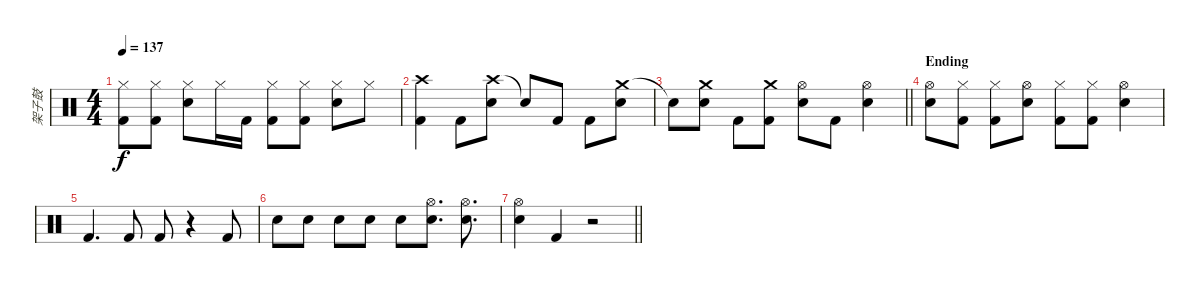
\track ("架子鼓" "架子鼓") {instrument percussion}
\staff {score}
\articulation defaults
\ts (4 4)
\tempo 137
\clef neutral
\ks c
("Hi-Hat (closed)" "Kick (hit) 2").8{dy f} ("Hi-Hat (closed)" "Kick (hit) 2").8 ("Hi-Hat (closed)" "Snare (hit) 2").8 "Hi-Hat (closed)".16 "Kick (hit) 2".16 ("Hi-Hat (closed)" "Kick (hit) 2").8 ("Hi-Hat (closed)" "Kick (hit) 2").8 ("Hi-Hat (closed)" "Snare (hit) 2").8 "Hi-Hat (closed)".8 |
("Crash high (hit)" "Kick (hit) 2").4 "Kick (hit) 2".8 ("Crash high (hit)" "Snare (hit) 2").8 "Snare (hit)"{t}.8 "Kick (hit) 2".8 "Kick (hit) 2".8 ("Crash medium (hit)" "Snare (hit) 2").8 |
\barLineRight lightlight "Snare (hit)"{t}.8
("Crash medium (hit)" "Snare (hit) 2").8 "Kick (hit) 2".8 ("Crash medium (hit)" "Kick (hit) 2").8 ("Hi-Hat (open)" "Snare (hit) 2").8 "Kick (hit) 2".8 ("Hi-Hat (open)" "Snare (hit) 2").4 |
\section ("" "Ending")
("Hi-Hat (open)" "Snare (hit) 2").8 ("Hi-Hat (closed)" "Kick (hit) 2").8 ("Hi-Hat (closed)" "Kick (hit) 2").8 ("Hi-Hat (open)" "Snare (hit) 2").8 ("Hi-Hat (closed)" "Kick (hit) 2").8 ("Hi-Hat (closed)" "Kick (hit) 2").8 ("Hi-Hat (open)" "Snare (hit) 2").4 |
"Kick (hit) 2".4{d} "Kick (hit) 2".8 "Kick (hit) 2".8 r.4 "Kick (hit) 2".8 |
"Snare (hit) 2".8 "Snare (hit) 2".8 "Snare (hit) 2".8 "Snare (hit) 2".8 "Snare (hit) 2".8 ("Hi-Hat (open)" "Snare (hit) 2").8{d} ("Hi-Hat (open)" "Snare (hit) 2").8{d} |
\barLineRight lightlight
("Hi-Hat (open)" "Snare (hit) 2").4 "Kick (hit) 2".4 r.2
